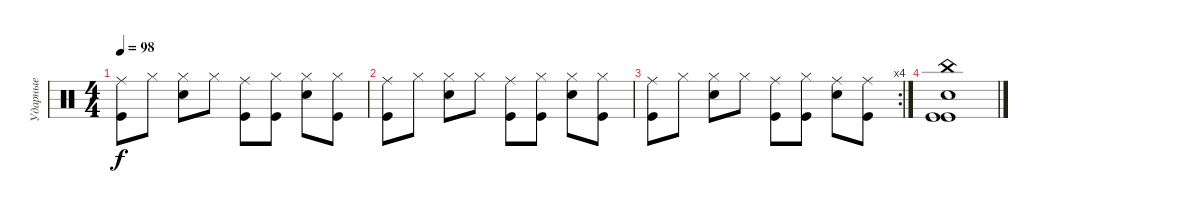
\track ("Ударные" "Ударные") {instrument percussion}
\staff {score}
\articulation defaults
\ts (4 4)
\tempo 98
\clef neutral
\ks c
("Kick (hit)" "Ride (middle)").8{dy f} "Hi-Hat (closed)".8 ("Snare (hit) 2" "Hi-Hat (closed)").8 "Hi-Hat (closed)".8 ("Kick (hit)" "Ride (middle)").8 ("Kick (hit)" "Hi-Hat (closed)").8 ("Snare (hit) 2" "Hi-Hat (closed)").8 ("Kick (hit)" "Hi-Hat (closed)").8 |
("Kick (hit)" "Ride (middle)").8 "Hi-Hat (closed)".8 ("Snare (hit) 2" "Hi-Hat (closed)").8 "Hi-Hat (closed)".8 ("Kick (hit)" "Ride (middle)").8 ("Kick (hit)" "Hi-Hat (closed)").8 ("Snare (hit) 2" "Hi-Hat (closed)").8 ("Kick (hit)" "Hi-Hat (closed)").8 |
\rc 4
("Kick (hit)" "Ride (middle)").8 "Hi-Hat (closed)".8 ("Snare (hit) 2" "Hi-Hat (closed)").8 "Hi-Hat (closed)".8 ("Kick (hit)" "Ride (middle)").8 ("Kick (hit)" "Hi-Hat (closed)").8 ("Snare (hit) 2" "Ride (middle)").8 ("Kick (hit)" "Ride (middle)").8 |
("Kick (hit)" "Kick (hit)" "China (hit)" "Snare (hit) 2").1
